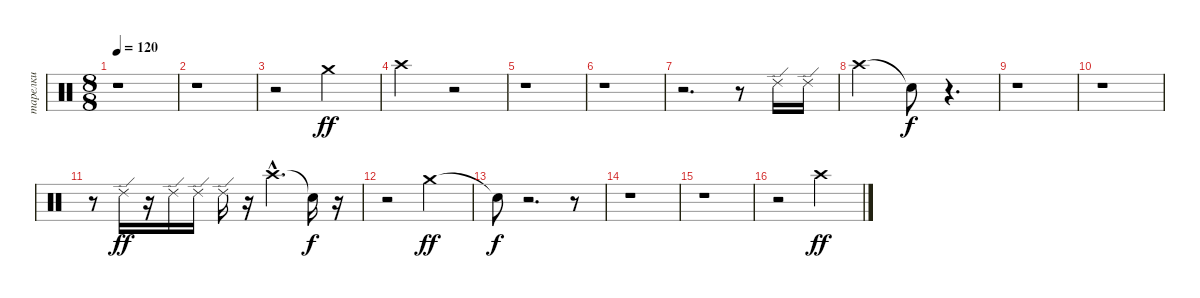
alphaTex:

\track ("тарелки" "тарелки") {instrument percussion}
\staff {score}
\articulation defaults
\ts (8 8)
\tempo 120
\clef neutral
\ks c
r.1{dy f} |
r.1 |
r.2 "Crash medium (hit)".2{dy ff} |
"Crash high (hit)".2 r.2 |
r.1 |
r.1 |
r.2{d} r.8 "Ride (edge) 2".16 "Ride (edge) 2".16 |
"Crash high (hit)".2 "Snare (hit)"{t}.8{dy f} r.4{d} |
r.1 |
r.1 |
r.8 "Ride (edge) 2".16{dy ff} r.16 "Ride (edge) 2".16 "Ride (edge) 2".16 "Ride (edge) 2".16 r.16 "Crash high (hit)"{hac}.4{d} "Snare (hit)"{t}.16{dy f} r.16 |
r.2 "Crash medium (hit)".2{dy ff} |
"Snare (hit)"{t}.8{dy f} r.2{d} r.8 |
r.1 |
r.1 |
r.2 "Crash high (hit)".2{dy ff}
